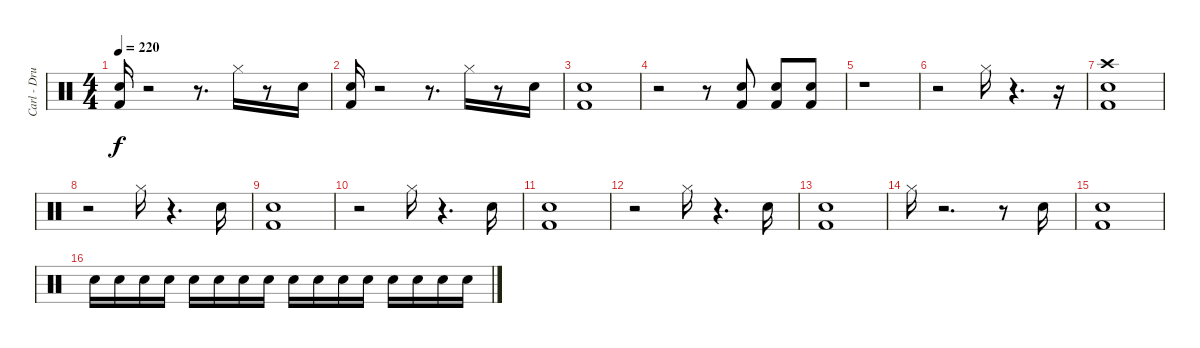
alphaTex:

\track ("Carl - Drums" "Carl - Dru") {instrument percussion}
\staff {score}
\articulation defaults
\ts (4 4)
\tempo 220
\clef neutral
\ks c
("Electric Snare (hit)" "Kick (hit) 2").16{dy f} r.2 r.8{d} "Hi-Hat (closed)".16 r.8 "Electric Snare (hit)".16 |
("Electric Snare (hit)" "Kick (hit) 2").16 r.2 r.8{d} "Hi-Hat (closed)".16 r.8 "Electric Snare (hit)".16 |
("Electric Snare (hit)" "Kick (hit) 2").1 |
r.2 r.8 ("Electric Snare (hit)" "Kick (hit) 2").8 ("Electric Snare (hit)" "Kick (hit) 2").8 ("Electric Snare (hit)" "Kick (hit) 2").8 |
r.1 |
r.2 "Hi-Hat (closed)".16 r.4{d} r.16 |
("Crash high (hit)" "Electric Snare (hit)" "Kick (hit) 2").1 |
r.2 "Hi-Hat (closed)".16 r.4{d} "Electric Snare (hit)".16 |
("Electric Snare (hit)" "Kick (hit) 2").1 |
r.2 "Hi-Hat (closed)".16 r.4{d} "Electric Snare (hit)".16 |
("Electric Snare (hit)" "Kick (hit) 2").1 |
r.2 "Hi-Hat (closed)".16 r.4{d} "Electric Snare (hit)".16 |
("Electric Snare (hit)" "Kick (hit) 2").1 |
"Hi-Hat (closed)".16 r.2{d} r.8 "Electric Snare (hit)".16 |
("Electric Snare (hit)" "Kick (hit) 2").1 |
"Electric Snare (hit)".16 "Electric Snare (hit)".16 "Electric Snare (hit)".16 "Electric Snare (hit)".16 "Electric Snare (hit)".16 "Electric Snare (hit)".16 "Electric Snare (hit)".16 "Electric Snare (hit)".16 "Electric Snare (hit)".16 "Electric Snare (hit)".16 "Electric Snare (hit)".16 "Electric Snare (hit)".16 "Electric Snare (hit)".16 "Electric Snare (hit)".16 "Electric Snare (hit)".16 "Electric Snare (hit)".16
